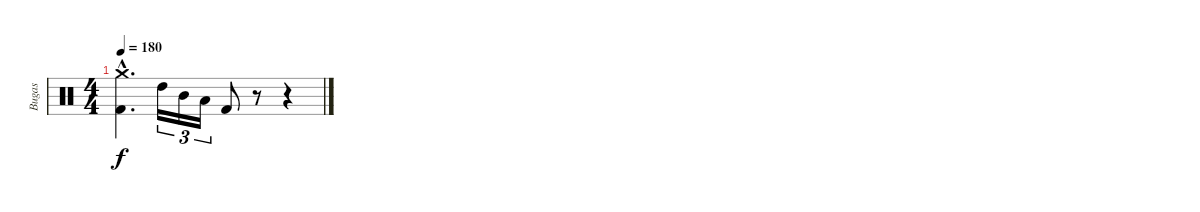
\track ("Bugas" "Bugas") {instrument percussion}
\staff {score}
\articulation defaults
\ts (4 4)
\tempo 180
\clef neutral
\ks c
("Crash medium (hit)"{hac} "Kick (hit) 2"{hac}).4{d dy f} "High Tom (hit)".16{tu (3 2)} "Mid Tom (hit)".16{tu (3 2)} "Low Tom (hit)".16{tu (3 2)} "Kick (hit) 2".8 r.8 r.4
